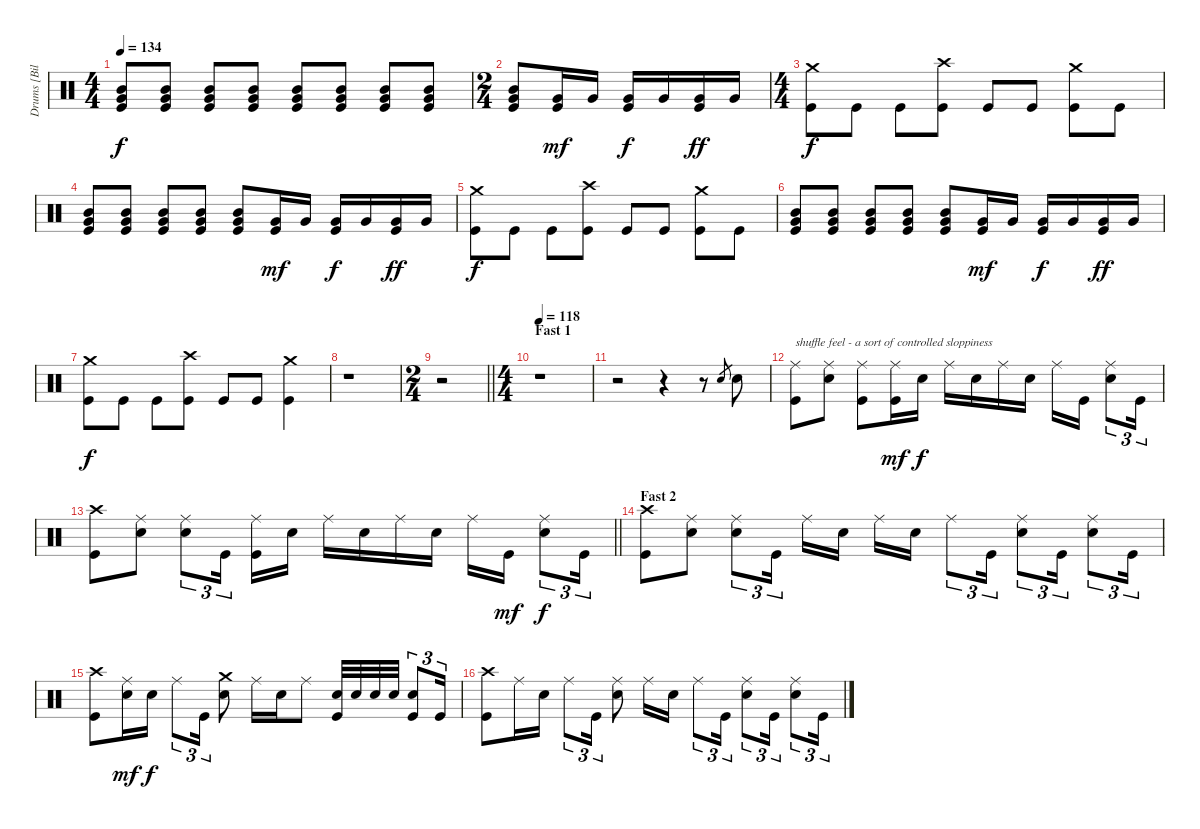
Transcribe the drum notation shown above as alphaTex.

\track ("Drums [Bill Ward]" "Drums [Bil") {instrument percussion}
\staff {score}
\articulation defaults
\ts (4 4)
\tempo 134
\clef neutral
\ks c
("Mid Tom (hit)" "Very Low Tom (hit)" "Kick (hit)").8{dy f} ("Mid Tom (hit)" "Very Low Tom (hit)" "Kick (hit)").8 ("Mid Tom (hit)" "Very Low Tom (hit)" "Kick (hit)").8 ("Mid Tom (hit)" "Very Low Tom (hit)" "Kick (hit)").8 ("Mid Tom (hit)" "Very Low Tom (hit)" "Kick (hit)").8 ("Mid Tom (hit)" "Very Low Tom (hit)" "Kick (hit)").8 ("Mid Tom (hit)" "Very Low Tom (hit)" "Kick (hit)").8 ("Mid Tom (hit)" "Very Low Tom (hit)" "Kick (hit)").8 |
\ts (2 4)
("Mid Tom (hit)" "Very Low Tom (hit)" "Kick (hit)").8 ("Very Low Tom (hit)" "Kick (hit)").16{dy mf} "Very Low Tom (hit)".16 ("Very Low Tom (hit)" "Kick (hit)").16{dy f} "Very Low Tom (hit)".16 ("Very Low Tom (hit)" "Kick (hit)").16{dy ff} "Very Low Tom (hit)".16 |
\ts (4 4)
("Crash medium (hit)" "Kick (hit)").8{dy f} "Kick (hit)".8 "Kick (hit)".8 ("Crash high (hit)" "Kick (hit)").8 "Kick (hit)".8 "Kick (hit)".8 ("Crash medium (hit)" "Kick (hit)").8 "Kick (hit)".8 |
("Mid Tom (hit)" "Very Low Tom (hit)" "Kick (hit)").8 ("Mid Tom (hit)" "Very Low Tom (hit)" "Kick (hit)").8 ("Mid Tom (hit)" "Very Low Tom (hit)" "Kick (hit)").8 ("Mid Tom (hit)" "Very Low Tom (hit)" "Kick (hit)").8 ("Mid Tom (hit)" "Very Low Tom (hit)" "Kick (hit)").8 ("Very Low Tom (hit)" "Kick (hit)").16{dy mf} "Very Low Tom (hit)".16 ("Very Low Tom (hit)" "Kick (hit)").16{dy f} "Very Low Tom (hit)".16 ("Very Low Tom (hit)" "Kick (hit)").16{dy ff} "Very Low Tom (hit)".16 |
("Crash medium (hit)" "Kick (hit)").8{dy f} "Kick (hit)".8 "Kick (hit)".8 ("Crash high (hit)" "Kick (hit)").8 "Kick (hit)".8 "Kick (hit)".8 ("Crash medium (hit)" "Kick (hit)").8 "Kick (hit)".8 |
("Mid Tom (hit)" "Very Low Tom (hit)" "Kick (hit)").8 ("Mid Tom (hit)" "Very Low Tom (hit)" "Kick (hit)").8 ("Mid Tom (hit)" "Very Low Tom (hit)" "Kick (hit)").8 ("Mid Tom (hit)" "Very Low Tom (hit)" "Kick (hit)").8 ("Mid Tom (hit)" "Very Low Tom (hit)" "Kick (hit)").8 ("Very Low Tom (hit)" "Kick (hit)").16{dy mf} "Very Low Tom (hit)".16 ("Very Low Tom (hit)" "Kick (hit)").16{dy f} "Very Low Tom (hit)".16 ("Very Low Tom (hit)" "Kick (hit)").16{dy ff} "Very Low Tom (hit)".16 |
("Crash medium (hit)" "Kick (hit)").8{dy f} "Kick (hit)".8 "Kick (hit)".8 ("Crash high (hit)" "Kick (hit)").8 "Kick (hit)".8 "Kick (hit)".8 ("Crash medium (hit)" "Kick (hit)").4 |
r.1 |
\ts (2 4)
\barLineRight lightlight
r.2 |
\ts (4 4)
\section ("" "Fast 1")
\tempo 118
r.1 |
r.2 r.4 r.8 "Electric Snare (hit)".8{gr} "Electric Snare (hit)".8 |
("Ride (middle)" "Kick (hit)").8{txt "shuffle feel - a sort of controlled sloppiness"} ("Ride (middle)" "Electric Snare (hit)").8 ("Ride (middle)" "Kick (hit)").8 ("Ride (middle)" "Kick (hit)").16{dy mf} "Electric Snare (hit)".16{dy f} "Ride (middle)".16 "Electric Snare (hit)".16 "Ride (middle)".16 "Electric Snare (hit)".16 "Ride (middle)".16 "Kick (hit)".16 ("Ride (middle)" "Electric Snare (hit)").8{tu (3 2)} "Kick (hit)".16{tu (3 2)} |
\barLineRight lightlight
("Crash high (hit)" "Kick (hit)").8 ("Ride (middle)" "Electric Snare (hit)").8 ("Ride (middle)" "Electric Snare (hit)").8{tu (3 2)} "Kick (hit)".16{tu (3 2) beam splitsecondary} ("Ride (middle)" "Kick (hit)").16 "Electric Snare (hit)".16 "Ride (middle)".16 "Electric Snare (hit)".16 "Ride (middle)".16 "Electric Snare (hit)".16 "Ride (middle)".16 "Kick (hit)".16{dy mf} ("Ride (middle)" "Electric Snare (hit)").8{tu (3 2) dy f} "Kick (hit)".16{tu (3 2)} |
\section ("" "Fast 2")
("Crash high (hit)" "Kick (hit)").8 ("Ride (middle)" "Electric Snare (hit)").8 ("Ride (middle)" "Electric Snare (hit)").8{tu (3 2)} "Kick (hit)".16{tu (3 2) beam splitsecondary} "Ride (middle)".16 "Electric Snare (hit)".16 "Ride (middle)".16 "Electric Snare (hit)".16 "Ride (middle)".8{tu (3 2)} "Kick (hit)".16{tu (3 2)} ("Ride (middle)" "Electric Snare (hit)").8{tu (3 2)} "Kick (hit)".16{tu (3 2)} ("Ride (middle)" "Electric Snare (hit)").8{tu (3 2)} "Kick (hit)".16{tu (3 2)} |
("Crash high (hit)" "Kick (hit)").8 ("Ride (middle)" "Electric Snare (hit)").16{dy mf} "Electric Snare (hit)".16{dy f} "Ride (middle)".8{tu (3 2)} "Kick (hit)".16{tu (3 2)} ("Crash medium (hit)" "Electric Snare (hit)").8 "Ride (middle)".16 "Electric Snare (hit)".16 "Ride (middle)".8 ("Electric Snare (hit)" "Kick (hit)").32 "Electric Snare (hit)".32 "Electric Snare (hit)".32 "Electric Snare (hit)".32 ("Electric Snare (hit)" "Kick (hit)").8{tu (3 2)} "Kick (hit)".16{tu (3 2)} |
("Crash high (hit)" "Kick (hit)").8 "Ride (middle)".16 "Electric Snare (hit)".16 "Ride (middle)".8{tu (3 2)} "Kick (hit)".16{tu (3 2)} ("Ride (middle)" "Electric Snare (hit)").8 "Ride (middle)".16 "Electric Snare (hit)".16 "Ride (middle)".8{tu (3 2)} "Kick (hit)".16{tu (3 2)} ("Ride (middle)" "Electric Snare (hit)").8{tu (3 2)} "Kick (hit)".16{tu (3 2)} ("Ride (middle)" "Electric Snare (hit)").8{tu (3 2)} "Kick (hit)".16{tu (3 2)}
